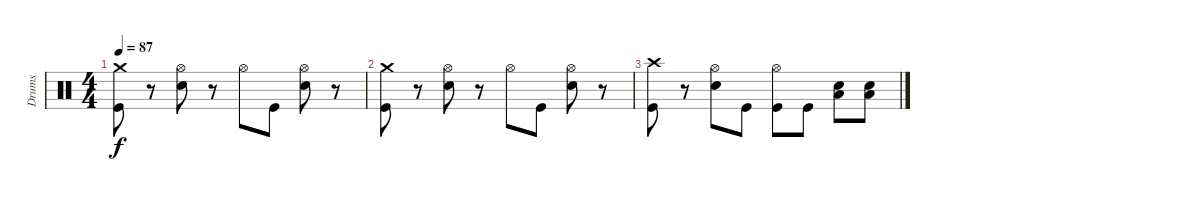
\track ("Drums" "Drums") {instrument percussion}
\staff {score}
\articulation defaults
\ts (4 4)
\tempo 87
\clef neutral
\ks c
("Crash medium (hit)" "Kick (hit)").8{dy f} r.8 ("Hi-Hat (open)" "Electric Snare (hit)").8 r.8 "Hi-Hat (open)".8 "Kick (hit)".8 ("Hi-Hat (open)" "Electric Snare (hit)").8 r.8 |
("Crash medium (hit)" "Kick (hit)").8 r.8 ("Hi-Hat (open)" "Electric Snare (hit)").8 r.8 "Hi-Hat (open)".8 "Kick (hit)".8 ("Hi-Hat (open)" "Electric Snare (hit)").8 r.8 |
("Crash high (hit)" "Kick (hit)").8 r.8 ("Hi-Hat (open)" "Electric Snare (hit)").8 "Kick (hit)".8 ("Hi-Hat (open)" "Kick (hit)").8 "Kick (hit)".8 ("Low Tom (hit)" "Electric Snare (hit)").8 ("Low Tom (hit)" "Electric Snare (hit)").8
